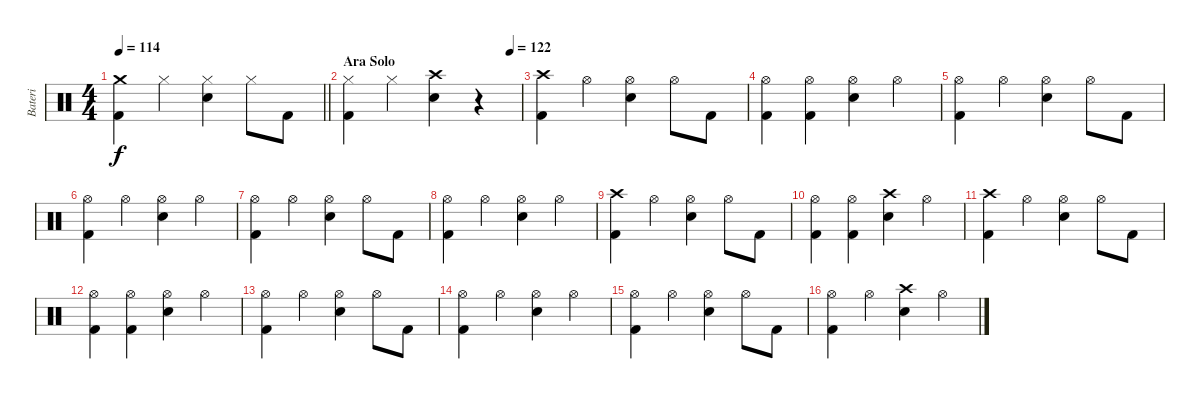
\track ("Bateri" "Bateri") {instrument percussion}
\staff {score}
\articulation defaults
\ts (4 4)
\tempo 114
\clef neutral
\barLineRight lightlight
\ks c
("Crash medium (hit)" "Kick (hit) 2").4{dy f} "Hi-Hat (closed)".4 ("Hi-Hat (closed)" "Snare (hit) 2").4 "Hi-Hat (closed)".8 "Kick (hit) 2".8 |
\section ("" "Ara Solo")
\tempo (122 0.9375)
("Hi-Hat (closed)" "Kick (hit) 2").4 "Hi-Hat (closed)".4 ("Crash high (hit)" "Snare (hit) 2").4 r.4 |
("Crash high (hit)" "Kick (hit) 2").4 "Hi-Hat (open)".4 ("Hi-Hat (open)" "Snare (hit) 2").4 "Hi-Hat (open)".8 "Kick (hit) 2".8 |
("Hi-Hat (open)" "Kick (hit) 2").4 ("Hi-Hat (open)" "Kick (hit) 2").4 ("Hi-Hat (open)" "Snare (hit) 2").4 "Hi-Hat (open)".4 |
("Hi-Hat (open)" "Kick (hit) 2").4 "Hi-Hat (open)".4 ("Hi-Hat (open)" "Snare (hit) 2").4 "Hi-Hat (open)".8 "Kick (hit) 2".8 |
("Hi-Hat (open)" "Kick (hit) 2").4 "Hi-Hat (open)".4 ("Hi-Hat (open)" "Snare (hit) 2").4 "Hi-Hat (open)".4 |
("Hi-Hat (open)" "Kick (hit) 2").4 "Hi-Hat (open)".4 ("Hi-Hat (open)" "Snare (hit) 2").4 "Hi-Hat (open)".8 "Kick (hit) 2".8 |
("Hi-Hat (open)" "Kick (hit) 2").4 "Hi-Hat (open)".4 ("Hi-Hat (open)" "Snare (hit) 2").4 "Hi-Hat (open)".4 |
("Crash high (hit)" "Kick (hit) 2").4 "Hi-Hat (open)".4 ("Hi-Hat (open)" "Snare (hit) 2").4 "Hi-Hat (open)".8 "Kick (hit) 2".8 |
("Hi-Hat (open)" "Kick (hit) 2").4 ("Hi-Hat (open)" "Kick (hit) 2").4 ("Crash high (hit)" "Snare (hit) 2").4 "Hi-Hat (open)".4 |
("Crash high (hit)" "Kick (hit) 2").4 "Hi-Hat (open)".4 ("Hi-Hat (open)" "Snare (hit) 2").4 "Hi-Hat (open)".8 "Kick (hit) 2".8 |
("Hi-Hat (open)" "Kick (hit) 2").4 ("Hi-Hat (open)" "Kick (hit) 2").4 ("Hi-Hat (open)" "Snare (hit) 2").4 "Hi-Hat (open)".4 |
("Hi-Hat (open)" "Kick (hit) 2").4 "Hi-Hat (open)".4 ("Hi-Hat (open)" "Snare (hit) 2").4 "Hi-Hat (open)".8 "Kick (hit) 2".8 |
("Hi-Hat (open)" "Kick (hit) 2").4 "Hi-Hat (open)".4 ("Hi-Hat (open)" "Snare (hit) 2").4 "Hi-Hat (open)".4 |
("Hi-Hat (open)" "Kick (hit) 2").4 "Hi-Hat (open)".4 ("Hi-Hat (open)" "Snare (hit) 2").4 "Hi-Hat (open)".8 "Kick (hit) 2".8 |
("Hi-Hat (open)" "Kick (hit) 2").4 "Hi-Hat (open)".4 ("Crash high (hit)" "Snare (hit) 2").4 "Hi-Hat (open)".4
